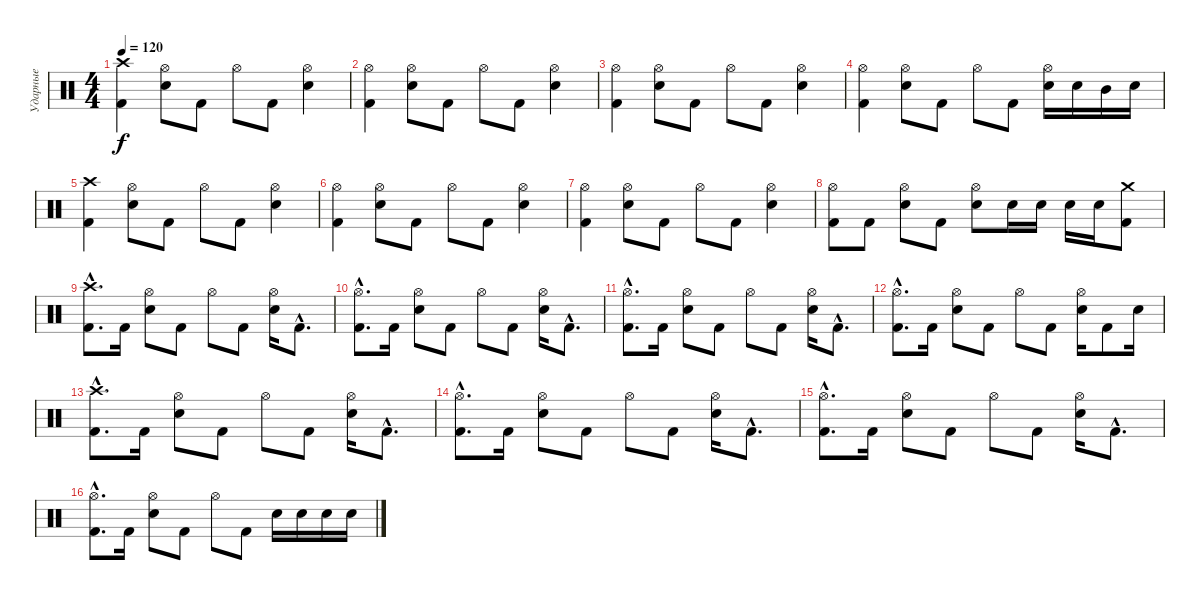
\track ("Ударные" "Ударные") {instrument percussion}
\staff {score}
\articulation defaults
\ts (4 4)
\tempo 120
\clef neutral
\ks c
("Crash high (hit)" "Kick (hit) 2").4{dy f} ("Hi-Hat (open)" "Electric Snare (hit)").8 "Kick (hit) 2".8 "Hi-Hat (open)".8 "Kick (hit) 2".8 ("Hi-Hat (open)" "Electric Snare (hit)").4 |
("Hi-Hat (open)" "Kick (hit) 2").4 ("Hi-Hat (open)" "Electric Snare (hit)").8 "Kick (hit) 2".8 "Hi-Hat (open)".8 "Kick (hit) 2".8 ("Hi-Hat (open)" "Electric Snare (hit)").4 |
("Hi-Hat (open)" "Kick (hit) 2").4 ("Hi-Hat (open)" "Electric Snare (hit)").8 "Kick (hit) 2".8 "Hi-Hat (open)".8 "Kick (hit) 2".8 ("Hi-Hat (open)" "Electric Snare (hit)").4 |
("Hi-Hat (open)" "Kick (hit) 2").4 ("Hi-Hat (open)" "Electric Snare (hit)").8 "Kick (hit) 2".8 "Hi-Hat (open)".8 "Kick (hit) 2".8 ("Hi-Hat (open)" "Electric Snare (hit)").16 "Electric Snare (hit)".16 "Mid Tom (hit)".16 "Electric Snare (hit)".16 |
("Crash high (hit)" "Kick (hit) 2").4 ("Hi-Hat (open)" "Electric Snare (hit)").8 "Kick (hit) 2".8 "Hi-Hat (open)".8 "Kick (hit) 2".8 ("Hi-Hat (open)" "Electric Snare (hit)").4 |
("Hi-Hat (open)" "Kick (hit) 2").4 ("Hi-Hat (open)" "Electric Snare (hit)").8 "Kick (hit) 2".8 "Hi-Hat (open)".8 "Kick (hit) 2".8 ("Hi-Hat (open)" "Electric Snare (hit)").4 |
("Hi-Hat (open)" "Kick (hit) 2").4 ("Hi-Hat (open)" "Electric Snare (hit)").8 "Kick (hit) 2".8 "Hi-Hat (open)".8 "Kick (hit) 2".8 ("Hi-Hat (open)" "Electric Snare (hit)").4 |
("Hi-Hat (open)" "Kick (hit) 2").8 "Kick (hit) 2".8 ("Hi-Hat (open)" "Electric Snare (hit)").8 "Kick (hit) 2".8 ("Hi-Hat (open)" "Electric Snare (hit)").8 "Electric Snare (hit)".16 "Electric Snare (hit)".16 "Electric Snare (hit)".16 "Electric Snare (hit)".16 ("Crash medium (hit)" "Kick (hit) 2").8 |
("Crash high (hit)"{hac} "Kick (hit) 2"{hac}).8{d} "Kick (hit) 2".16 ("Hi-Hat (open)" "Electric Snare (hit)").8 "Kick (hit) 2".8 "Hi-Hat (open)".8 "Kick (hit) 2".8 ("Hi-Hat (open)" "Electric Snare (hit)").16 "Kick (hit) 2"{hac}.8{d} |
("Hi-Hat (open)"{hac} "Kick (hit) 2"{hac}).8{d} "Kick (hit) 2".16 ("Hi-Hat (open)" "Electric Snare (hit)").8 "Kick (hit) 2".8 "Hi-Hat (open)".8 "Kick (hit) 2".8 ("Hi-Hat (open)" "Electric Snare (hit)").16 "Kick (hit) 2"{hac}.8{d} |
("Hi-Hat (open)"{hac} "Kick (hit) 2"{hac}).8{d} "Kick (hit) 2".16 ("Hi-Hat (open)" "Electric Snare (hit)").8 "Kick (hit) 2".8 "Hi-Hat (open)".8 "Kick (hit) 2".8 ("Hi-Hat (open)" "Electric Snare (hit)").16 "Kick (hit) 2"{hac}.8{d} |
("Hi-Hat (open)"{hac} "Kick (hit) 2"{hac}).8{d} "Kick (hit) 2".16 ("Hi-Hat (open)" "Electric Snare (hit)").8 "Kick (hit) 2".8 "Hi-Hat (open)".8 "Kick (hit) 2".8 ("Hi-Hat (open)" "Electric Snare (hit)").16 "Kick (hit) 2".8 "Electric Snare (hit)".16 |
("Crash high (hit)"{hac} "Kick (hit) 2"{hac}).8{d} "Kick (hit) 2".16 ("Hi-Hat (open)" "Electric Snare (hit)").8 "Kick (hit) 2".8 "Hi-Hat (open)".8 "Kick (hit) 2".8 ("Hi-Hat (open)" "Electric Snare (hit)").16 "Kick (hit) 2"{hac}.8{d} |
("Hi-Hat (open)"{hac} "Kick (hit) 2"{hac}).8{d} "Kick (hit) 2".16 ("Hi-Hat (open)" "Electric Snare (hit)").8 "Kick (hit) 2".8 "Hi-Hat (open)".8 "Kick (hit) 2".8 ("Hi-Hat (open)" "Electric Snare (hit)").16 "Kick (hit) 2"{hac}.8{d} |
("Hi-Hat (open)"{hac} "Kick (hit) 2"{hac}).8{d} "Kick (hit) 2".16 ("Hi-Hat (open)" "Electric Snare (hit)").8 "Kick (hit) 2".8 "Hi-Hat (open)".8 "Kick (hit) 2".8 ("Hi-Hat (open)" "Electric Snare (hit)").16 "Kick (hit) 2"{hac}.8{d} |
("Hi-Hat (open)"{hac} "Kick (hit) 2"{hac}).8{d} "Kick (hit) 2".16 ("Hi-Hat (open)" "Electric Snare (hit)").8 "Kick (hit) 2".8 "Hi-Hat (open)".8 "Kick (hit) 2".8 "Electric Snare (hit)".16 "Electric Snare (hit)".16 "Electric Snare (hit)".16 "Electric Snare (hit)".16
